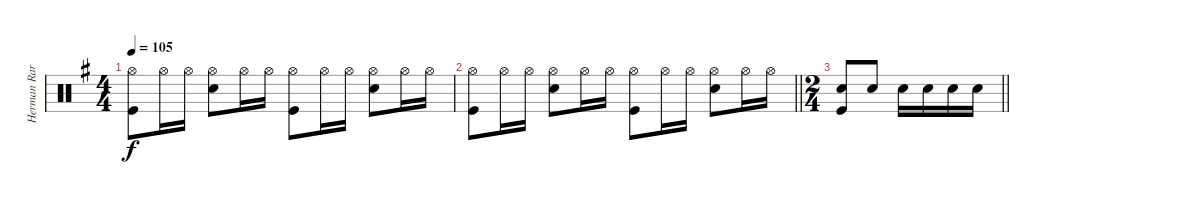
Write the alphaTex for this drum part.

\track ("Herman Rarebell" "Herman Rar") {instrument percussion}
\staff {score}
\articulation defaults
\ts (4 4)
\tempo 105
\clef neutral
\ks g
("Hi-Hat (open)" "Kick (hit)").8{dy f} "Hi-Hat (open)".16 "Hi-Hat (open)".16 ("Hi-Hat (open)" "Snare (hit) 2").8 "Hi-Hat (open)".16 "Hi-Hat (open)".16 ("Hi-Hat (open)" "Kick (hit)").8 "Hi-Hat (open)".16 "Hi-Hat (open)".16 ("Hi-Hat (open)" "Snare (hit) 2").8 "Hi-Hat (open)".16 "Hi-Hat (open)".16 |
\barLineRight lightlight
("Hi-Hat (open)" "Kick (hit)").8 "Hi-Hat (open)".16 "Hi-Hat (open)".16 ("Hi-Hat (open)" "Snare (hit) 2").8 "Hi-Hat (open)".16 "Hi-Hat (open)".16 ("Hi-Hat (open)" "Kick (hit)").8 "Hi-Hat (open)".16 "Hi-Hat (open)".16 ("Hi-Hat (open)" "Snare (hit) 2").8 "Hi-Hat (open)".16 "Hi-Hat (open)".16 |
\ts (2 4)
\barLineRight lightlight
("Snare (hit) 2" "Kick (hit)").8 "Snare (hit) 2".8 "Snare (hit) 2".16 "Snare (hit) 2".16 "Snare (hit) 2".16 "Snare (hit) 2".16
